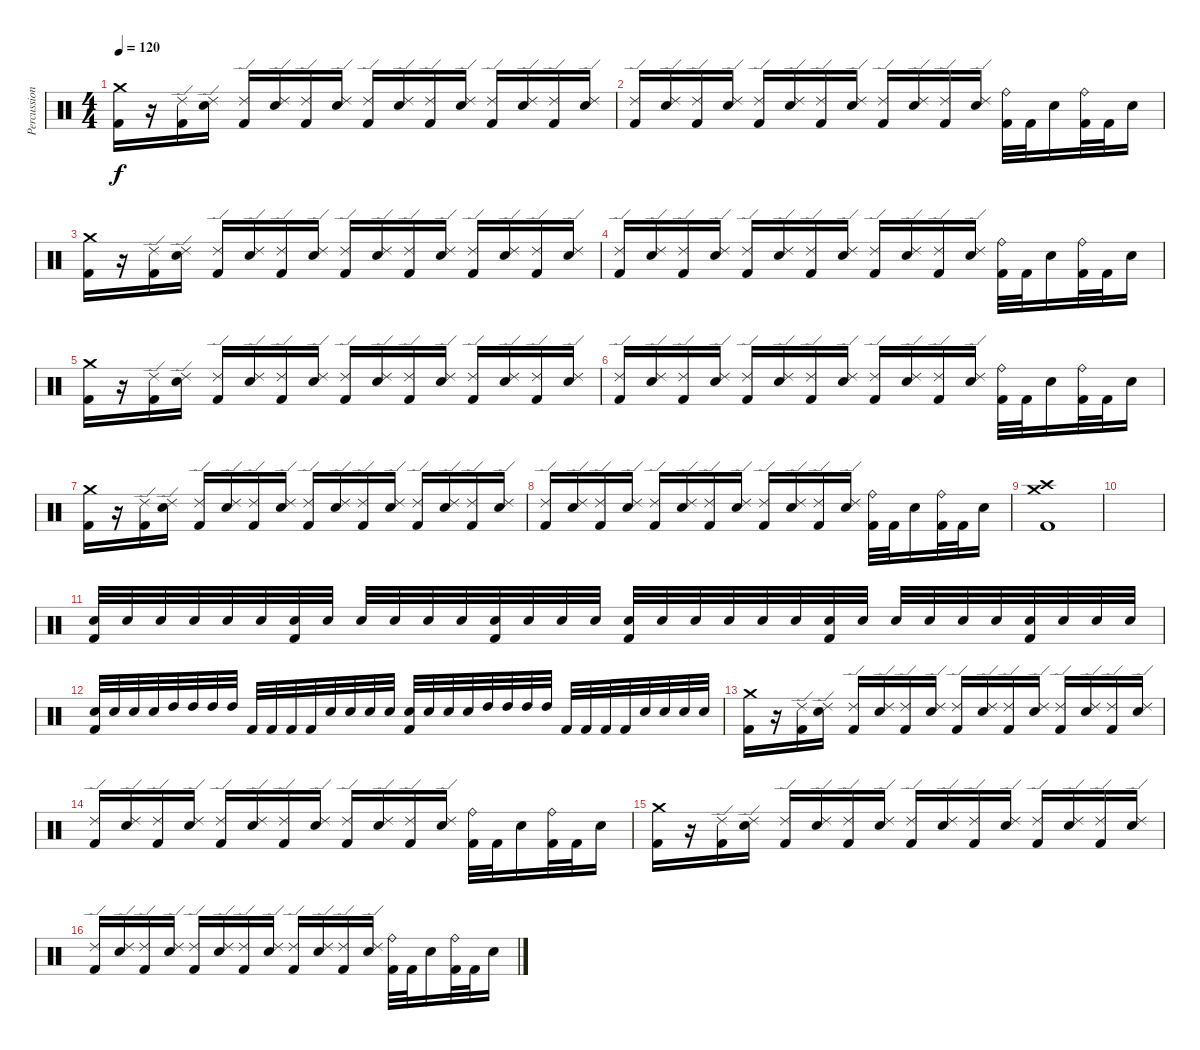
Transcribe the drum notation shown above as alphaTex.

\track ("Percussion" "Percussion") {instrument percussion}
\staff {score}
\articulation defaults
\ts (4 4)
\tempo 120
\clef neutral
\ks c
("Kick (hit) 2" "Crash medium (hit)").16{dy f} r.16 ("Kick (hit) 2" "Ride (edge) 2").16 ("Snare (hit) 2" "Ride (edge) 2").16 ("Kick (hit) 2" "Ride (edge) 2").16 ("Snare (hit) 2" "Ride (edge) 2").16 ("Kick (hit) 2" "Ride (edge) 2").16 ("Snare (hit) 2" "Ride (edge) 2").16 ("Kick (hit) 2" "Ride (edge) 2").16 ("Snare (hit) 2" "Ride (edge) 2").16 ("Kick (hit) 2" "Ride (edge) 2").16 ("Snare (hit) 2" "Ride (edge) 2").16 ("Kick (hit) 2" "Ride (edge) 2").16 ("Snare (hit) 2" "Ride (edge) 2").16 ("Kick (hit) 2" "Ride (edge) 2").16 ("Snare (hit) 2" "Ride (edge) 2").16 |
("Kick (hit) 2" "Ride (edge) 2").16 ("Snare (hit) 2" "Ride (edge) 2").16 ("Kick (hit) 2" "Ride (edge) 2").16 ("Snare (hit) 2" "Ride (edge) 2").16 ("Kick (hit) 2" "Ride (edge) 2").16 ("Snare (hit) 2" "Ride (edge) 2").16 ("Kick (hit) 2" "Ride (edge) 2").16 ("Snare (hit) 2" "Ride (edge) 2").16 ("Kick (hit) 2" "Ride (edge) 2").16 ("Snare (hit) 2" "Ride (edge) 2").16 ("Kick (hit) 2" "Ride (edge) 2").16 ("Snare (hit) 2" "Ride (edge) 2").16 ("Kick (hit) 2" "Ride (bell)").32 "Kick (hit) 2".32 "Snare (hit) 2".16 ("Kick (hit) 2" "Ride (bell)").32 "Kick (hit) 2".32 "Snare (hit) 2".16 |
("Kick (hit) 2" "Crash medium (hit)").16 r.16 ("Kick (hit) 2" "Ride (edge) 2").16 ("Snare (hit) 2" "Ride (edge) 2").16 ("Kick (hit) 2" "Ride (edge) 2").16 ("Snare (hit) 2" "Ride (edge) 2").16 ("Kick (hit) 2" "Ride (edge) 2").16 ("Snare (hit) 2" "Ride (edge) 2").16 ("Kick (hit) 2" "Ride (edge) 2").16 ("Snare (hit) 2" "Ride (edge) 2").16 ("Kick (hit) 2" "Ride (edge) 2").16 ("Snare (hit) 2" "Ride (edge) 2").16 ("Kick (hit) 2" "Ride (edge) 2").16 ("Snare (hit) 2" "Ride (edge) 2").16 ("Kick (hit) 2" "Ride (edge) 2").16 ("Snare (hit) 2" "Ride (edge) 2").16 |
("Kick (hit) 2" "Ride (edge) 2").16 ("Snare (hit) 2" "Ride (edge) 2").16 ("Kick (hit) 2" "Ride (edge) 2").16 ("Snare (hit) 2" "Ride (edge) 2").16 ("Kick (hit) 2" "Ride (edge) 2").16 ("Snare (hit) 2" "Ride (edge) 2").16 ("Kick (hit) 2" "Ride (edge) 2").16 ("Snare (hit) 2" "Ride (edge) 2").16 ("Kick (hit) 2" "Ride (edge) 2").16 ("Snare (hit) 2" "Ride (edge) 2").16 ("Kick (hit) 2" "Ride (edge) 2").16 ("Snare (hit) 2" "Ride (edge) 2").16 ("Kick (hit) 2" "Ride (bell)").32 "Kick (hit) 2".32 "Snare (hit) 2".16 ("Kick (hit) 2" "Ride (bell)").32 "Kick (hit) 2".32 "Snare (hit) 2".16 |
("Kick (hit) 2" "Crash medium (hit)").16 r.16 ("Kick (hit) 2" "Ride (edge) 2").16 ("Snare (hit) 2" "Ride (edge) 2").16 ("Kick (hit) 2" "Ride (edge) 2").16 ("Snare (hit) 2" "Ride (edge) 2").16 ("Kick (hit) 2" "Ride (edge) 2").16 ("Snare (hit) 2" "Ride (edge) 2").16 ("Kick (hit) 2" "Ride (edge) 2").16 ("Snare (hit) 2" "Ride (edge) 2").16 ("Kick (hit) 2" "Ride (edge) 2").16 ("Snare (hit) 2" "Ride (edge) 2").16 ("Kick (hit) 2" "Ride (edge) 2").16 ("Snare (hit) 2" "Ride (edge) 2").16 ("Kick (hit) 2" "Ride (edge) 2").16 ("Snare (hit) 2" "Ride (edge) 2").16 |
("Kick (hit) 2" "Ride (edge) 2").16 ("Snare (hit) 2" "Ride (edge) 2").16 ("Kick (hit) 2" "Ride (edge) 2").16 ("Snare (hit) 2" "Ride (edge) 2").16 ("Kick (hit) 2" "Ride (edge) 2").16 ("Snare (hit) 2" "Ride (edge) 2").16 ("Kick (hit) 2" "Ride (edge) 2").16 ("Snare (hit) 2" "Ride (edge) 2").16 ("Kick (hit) 2" "Ride (edge) 2").16 ("Snare (hit) 2" "Ride (edge) 2").16 ("Kick (hit) 2" "Ride (edge) 2").16 ("Snare (hit) 2" "Ride (edge) 2").16 ("Kick (hit) 2" "Ride (bell)").32 "Kick (hit) 2".32 "Snare (hit) 2".16 ("Kick (hit) 2" "Ride (bell)").32 "Kick (hit) 2".32 "Snare (hit) 2".16 |
("Kick (hit) 2" "Crash medium (hit)").16 r.16 ("Kick (hit) 2" "Ride (edge) 2").16 ("Snare (hit) 2" "Ride (edge) 2").16 ("Kick (hit) 2" "Ride (edge) 2").16 ("Snare (hit) 2" "Ride (edge) 2").16 ("Kick (hit) 2" "Ride (edge) 2").16 ("Snare (hit) 2" "Ride (edge) 2").16 ("Kick (hit) 2" "Ride (edge) 2").16 ("Snare (hit) 2" "Ride (edge) 2").16 ("Kick (hit) 2" "Ride (edge) 2").16 ("Snare (hit) 2" "Ride (edge) 2").16 ("Kick (hit) 2" "Ride (edge) 2").16 ("Snare (hit) 2" "Ride (edge) 2").16 ("Kick (hit) 2" "Ride (edge) 2").16 ("Snare (hit) 2" "Ride (edge) 2").16 |
("Kick (hit) 2" "Ride (edge) 2").16 ("Snare (hit) 2" "Ride (edge) 2").16 ("Kick (hit) 2" "Ride (edge) 2").16 ("Snare (hit) 2" "Ride (edge) 2").16 ("Kick (hit) 2" "Ride (edge) 2").16 ("Snare (hit) 2" "Ride (edge) 2").16 ("Kick (hit) 2" "Ride (edge) 2").16 ("Snare (hit) 2" "Ride (edge) 2").16 ("Kick (hit) 2" "Ride (edge) 2").16 ("Snare (hit) 2" "Ride (edge) 2").16 ("Kick (hit) 2" "Ride (edge) 2").16 ("Snare (hit) 2" "Ride (edge) 2").16 ("Kick (hit) 2" "Ride (bell)").32 "Kick (hit) 2".32 "Snare (hit) 2".16 ("Kick (hit) 2" "Ride (bell)").32 "Kick (hit) 2".32 "Snare (hit) 2".16 |
("Kick (hit) 2" "Crash medium (hit)" "Crash high (hit)").1 |
|
("Snare (hit) 2" "Kick (hit) 2").32 "Snare (hit) 2".32 "Snare (hit) 2".32 "Snare (hit) 2".32 "Snare (hit) 2".32 "Snare (hit) 2".32 ("Snare (hit) 2" "Kick (hit) 2").32 "Snare (hit) 2".32 "Snare (hit) 2".32 "Snare (hit) 2".32 "Snare (hit) 2".32 "Snare (hit) 2".32 ("Snare (hit) 2" "Kick (hit) 2").32 "Snare (hit) 2".32 "Snare (hit) 2".32 "Snare (hit) 2".32 ("Snare (hit) 2" "Kick (hit) 2").32 "Snare (hit) 2".32 "Snare (hit) 2".32 "Snare (hit) 2".32 "Snare (hit) 2".32 "Snare (hit) 2".32 ("Snare (hit) 2" "Kick (hit) 2").32 "Snare (hit) 2".32 "Snare (hit) 2".32 "Snare (hit) 2".32 "Snare (hit) 2".32 "Snare (hit) 2".32 ("Snare (hit) 2" "Kick (hit) 2").32 "Snare (hit) 2".32 "Snare (hit) 2".32 "Snare (hit) 2".32 |
("Snare (hit) 2" "Kick (hit) 2").32 "Snare (hit) 2".32 "Snare (hit) 2".32 "Snare (hit) 2".32 "High Tom (hit)".32 "High Tom (hit)".32 "High Tom (hit)".32 "High Tom (hit)".32 "Kick (hit) 2".32 "Kick (hit) 2".32 "Kick (hit) 2".32 "Kick (hit) 2".32 "Snare (hit) 2".32 "Snare (hit) 2".32 "Snare (hit) 2".32 "Snare (hit) 2".32 ("Snare (hit) 2" "Kick (hit) 2").32 "Snare (hit) 2".32 "Snare (hit) 2".32 "Snare (hit) 2".32 "High Tom (hit)".32 "High Tom (hit)".32 "High Tom (hit)".32 "High Tom (hit)".32 "Kick (hit) 2".32 "Kick (hit) 2".32 "Kick (hit) 2".32 "Kick (hit) 2".32 "Snare (hit) 2".32 "Snare (hit) 2".32 "Snare (hit) 2".32 "Snare (hit) 2".32 |
("Kick (hit) 2" "Crash medium (hit)").16 r.16 ("Kick (hit) 2" "Ride (edge) 2").16 ("Snare (hit) 2" "Ride (edge) 2").16 ("Kick (hit) 2" "Ride (edge) 2").16 ("Snare (hit) 2" "Ride (edge) 2").16 ("Kick (hit) 2" "Ride (edge) 2").16 ("Snare (hit) 2" "Ride (edge) 2").16 ("Kick (hit) 2" "Ride (edge) 2").16 ("Snare (hit) 2" "Ride (edge) 2").16 ("Kick (hit) 2" "Ride (edge) 2").16 ("Snare (hit) 2" "Ride (edge) 2").16 ("Kick (hit) 2" "Ride (edge) 2").16 ("Snare (hit) 2" "Ride (edge) 2").16 ("Kick (hit) 2" "Ride (edge) 2").16 ("Snare (hit) 2" "Ride (edge) 2").16 |
("Kick (hit) 2" "Ride (edge) 2").16 ("Snare (hit) 2" "Ride (edge) 2").16 ("Kick (hit) 2" "Ride (edge) 2").16 ("Snare (hit) 2" "Ride (edge) 2").16 ("Kick (hit) 2" "Ride (edge) 2").16 ("Snare (hit) 2" "Ride (edge) 2").16 ("Kick (hit) 2" "Ride (edge) 2").16 ("Snare (hit) 2" "Ride (edge) 2").16 ("Kick (hit) 2" "Ride (edge) 2").16 ("Snare (hit) 2" "Ride (edge) 2").16 ("Kick (hit) 2" "Ride (edge) 2").16 ("Snare (hit) 2" "Ride (edge) 2").16 ("Kick (hit) 2" "Ride (bell)").32 "Kick (hit) 2".32 "Snare (hit) 2".16 ("Kick (hit) 2" "Ride (bell)").32 "Kick (hit) 2".32 "Snare (hit) 2".16 |
("Kick (hit) 2" "Crash medium (hit)").16 r.16 ("Kick (hit) 2" "Ride (edge) 2").16 ("Snare (hit) 2" "Ride (edge) 2").16 ("Kick (hit) 2" "Ride (edge) 2").16 ("Snare (hit) 2" "Ride (edge) 2").16 ("Kick (hit) 2" "Ride (edge) 2").16 ("Snare (hit) 2" "Ride (edge) 2").16 ("Kick (hit) 2" "Ride (edge) 2").16 ("Snare (hit) 2" "Ride (edge) 2").16 ("Kick (hit) 2" "Ride (edge) 2").16 ("Snare (hit) 2" "Ride (edge) 2").16 ("Kick (hit) 2" "Ride (edge) 2").16 ("Snare (hit) 2" "Ride (edge) 2").16 ("Kick (hit) 2" "Ride (edge) 2").16 ("Snare (hit) 2" "Ride (edge) 2").16 |
("Kick (hit) 2" "Ride (edge) 2").16 ("Snare (hit) 2" "Ride (edge) 2").16 ("Kick (hit) 2" "Ride (edge) 2").16 ("Snare (hit) 2" "Ride (edge) 2").16 ("Kick (hit) 2" "Ride (edge) 2").16 ("Snare (hit) 2" "Ride (edge) 2").16 ("Kick (hit) 2" "Ride (edge) 2").16 ("Snare (hit) 2" "Ride (edge) 2").16 ("Kick (hit) 2" "Ride (edge) 2").16 ("Snare (hit) 2" "Ride (edge) 2").16 ("Kick (hit) 2" "Ride (edge) 2").16 ("Snare (hit) 2" "Ride (edge) 2").16 ("Kick (hit) 2" "Ride (bell)").32 "Kick (hit) 2".32 "Snare (hit) 2".16 ("Kick (hit) 2" "Ride (bell)").32 "Kick (hit) 2".32 "Snare (hit) 2".16
